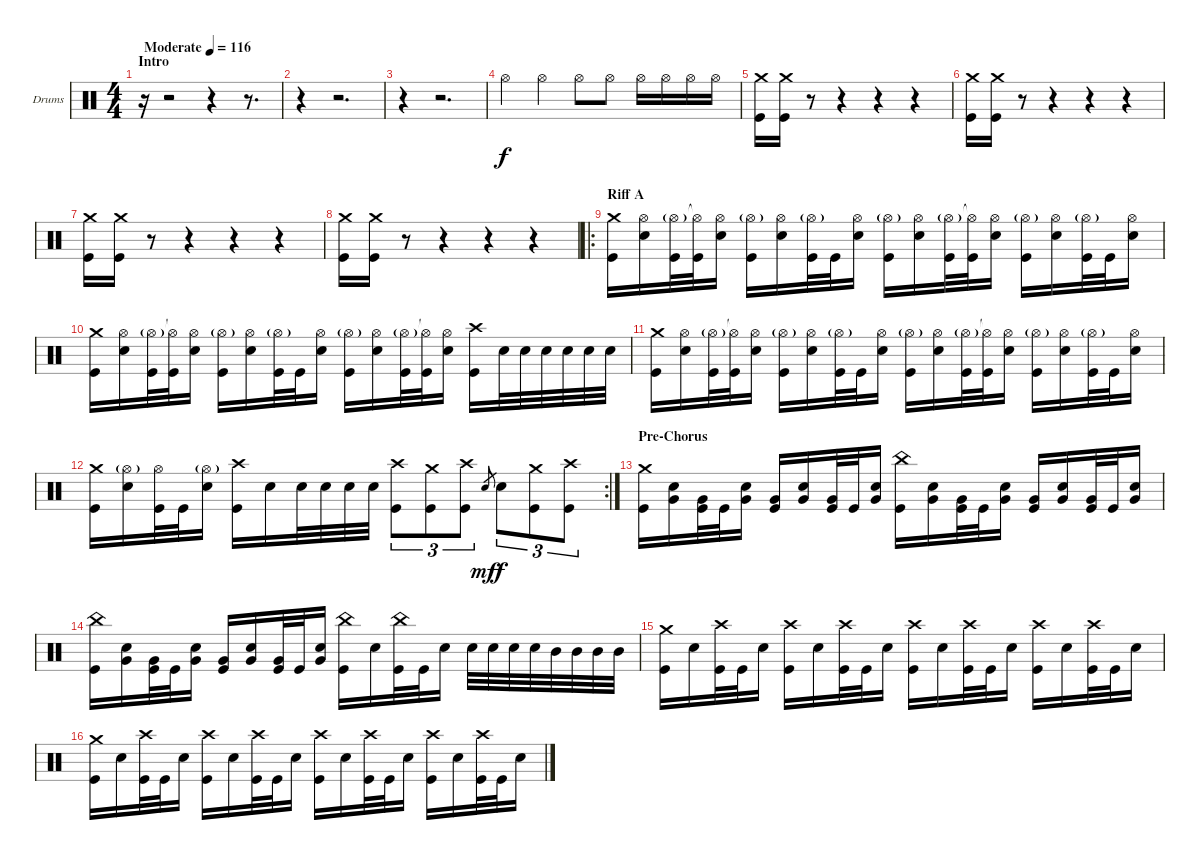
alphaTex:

\bracketExtendMode groupsimilarinstruments
\firstSystemTrackNameOrientation horizontal
\otherSystemsTrackNameOrientation horizontal
\track ("Dave McClain" "Drums") {instrument percussion}
\staff {score}
\articulation defaults
\ts (4 4)
\beaming (8 2 2 2 2)
\section ("" "Intro")
\tempo (116 "Moderate")
\clef neutral
\ks c
r.16{dy f} r.2 r.4 r.8{d} |
r.4 r.2{d} |
r.4 r.2{d} |
"Hi-Hat (open)".4 "Hi-Hat (open)".4 "Hi-Hat (open)".8 "Hi-Hat (open)".8 "Hi-Hat (open)".16 "Hi-Hat (open)".16 "Hi-Hat (open)".16 "Hi-Hat (open)".16 |
("Crash medium (hit)" "Kick (hit)").16 ("Crash medium (hit)" "Kick (hit)").16 r.8 r.4 r.4 r.4 |
("Crash medium (hit)" "Kick (hit)").16 ("Crash medium (hit)" "Kick (hit)").16 r.8 r.4 r.4 r.4 |
("Crash medium (hit)" "Kick (hit)").16 ("Crash medium (hit)" "Kick (hit)").16 r.8 r.4 r.4 r.4 |
("Crash medium (hit)" "Kick (hit)").16 ("Crash medium (hit)" "Kick (hit)").16 r.8 r.4 r.4 r.4 |
\ro
\section ("" "Riff A")
("Crash medium (hit)" "Kick (hit)").16 ("Hi-Hat (open)" "Snare (hit) 2").16 ("Hi-Hat (open)"{g} "Kick (hit)").32 ("Hi-Hat (open)"{t} "Kick (hit)").32 ("Hi-Hat (open)" "Snare (hit) 2").16 ("Hi-Hat (open)"{g} "Kick (hit)").16 ("Hi-Hat (open)" "Snare (hit) 2").16 ("Hi-Hat (open)"{g} "Kick (hit)").32 "Kick (hit)".32 ("Hi-Hat (open)" "Snare (hit) 2").16 ("Hi-Hat (open)"{g} "Kick (hit)").16 ("Hi-Hat (open)" "Snare (hit) 2").16 ("Hi-Hat (open)"{g} "Kick (hit)").32 ("Hi-Hat (open)"{t} "Kick (hit)").32 ("Hi-Hat (open)" "Snare (hit) 2").16 ("Hi-Hat (open)"{g} "Kick (hit)").16 ("Hi-Hat (open)" "Snare (hit) 2").16 ("Hi-Hat (open)"{g} "Kick (hit)").32 "Kick (hit)".32 ("Hi-Hat (open)" "Snare (hit) 2").16 |
("Crash medium (hit)" "Kick (hit)").16 ("Hi-Hat (open)" "Snare (hit) 2").16 ("Hi-Hat (open)"{g} "Kick (hit)").32 ("Hi-Hat (open)"{t} "Kick (hit)").32 ("Hi-Hat (open)" "Snare (hit) 2").16 ("Hi-Hat (open)"{g} "Kick (hit)").16 ("Hi-Hat (open)" "Snare (hit) 2").16 ("Hi-Hat (open)"{g} "Kick (hit)").32 "Kick (hit)".32 ("Hi-Hat (open)" "Snare (hit) 2").16 ("Hi-Hat (open)"{g} "Kick (hit)").16 ("Hi-Hat (open)" "Snare (hit) 2").16 ("Hi-Hat (open)"{g} "Kick (hit)").32 ("Hi-Hat (open)"{t} "Kick (hit)").32 ("Hi-Hat (open)" "Snare (hit) 2").16 ("Crash high (hit)" "Kick (hit)").16 "Snare (hit) 2".32 "Snare (hit) 2".32 "Snare (hit) 2".32 "Snare (hit) 2".32 "Snare (hit) 2".32 "Snare (hit) 2".32 |
("Crash medium (hit)" "Kick (hit)").16 ("Hi-Hat (open)" "Snare (hit) 2").16 ("Hi-Hat (open)"{g} "Kick (hit)").32 ("Hi-Hat (open)"{t} "Kick (hit)").32 ("Hi-Hat (open)" "Snare (hit) 2").16 ("Hi-Hat (open)"{g} "Kick (hit)").16 ("Hi-Hat (open)" "Snare (hit) 2").16 ("Hi-Hat (open)"{g} "Kick (hit)").32 "Kick (hit)".32 ("Hi-Hat (open)" "Snare (hit) 2").16 ("Hi-Hat (open)"{g} "Kick (hit)").16 ("Hi-Hat (open)" "Snare (hit) 2").16 ("Hi-Hat (open)"{g} "Kick (hit)").32 ("Hi-Hat (open)"{t} "Kick (hit)").32 ("Hi-Hat (open)" "Snare (hit) 2").16 ("Hi-Hat (open)"{g} "Kick (hit)").16 ("Hi-Hat (open)" "Snare (hit) 2").16 ("Hi-Hat (open)"{g} "Kick (hit)").32 "Kick (hit)".32 ("Hi-Hat (open)" "Snare (hit) 2").16 |
\rc 2
("Crash medium (hit)" "Kick (hit)").16 ("Hi-Hat (open)"{g} "Snare (hit) 2").16 ("Hi-Hat (open)" "Kick (hit)").32 "Kick (hit)".32 ("Hi-Hat (open)"{g} "Snare (hit) 2").16 ("Crash high (hit)" "Kick (hit)").16 "Snare (hit) 2".16 "Snare (hit) 2".32 "Snare (hit) 2".32 "Snare (hit) 2".32 "Snare (hit) 2".32 ("Crash high (hit)" "Kick (hit)").8{tu (3 2)} ("Crash medium (hit)" "Kick (hit)").8{tu (3 2)} ("Crash high (hit)" "Kick (hit)").8{tu (3 2)} "Snare (hit) 2".8{gr dy mf} "Snare (hit) 2".8{tu (3 2) dy f} ("Crash medium (hit)" "Kick (hit)").8{tu (3 2)} ("Crash high (hit)" "Kick (hit)").8{tu (3 2)} |
\section ("" "Pre-Chorus")
("Crash medium (hit)" "Kick (hit)").16 ("Snare (hit) 2" "Very Low Tom (hit)").16 ("Very Low Tom (hit)" "Kick (hit)").32 "Kick (hit)".32 ("Snare (hit) 2" "Very Low Tom (hit)").16 ("Very Low Tom (hit)" "Kick (hit)").16 ("Snare (hit) 2" "Very Low Tom (hit)").16 ("Very Low Tom (hit)" "Kick (hit)").32 "Kick (hit)".32 ("Snare (hit) 2" "Very Low Tom (hit)").16 ("China (hit)" "Kick (hit)").16 ("Snare (hit) 2" "Very Low Tom (hit)").16 ("Very Low Tom (hit)" "Kick (hit)").32 "Kick (hit)".32 ("Snare (hit) 2" "Very Low Tom (hit)").16 ("Very Low Tom (hit)" "Kick (hit)").16 ("Snare (hit) 2" "Very Low Tom (hit)").16 ("Very Low Tom (hit)" "Kick (hit)").32 "Kick (hit)".32 ("Snare (hit) 2" "Very Low Tom (hit)").16 |
("China (hit)" "Kick (hit)").16 ("Snare (hit) 2" "Very Low Tom (hit)").16 ("Very Low Tom (hit)" "Kick (hit)").32 "Kick (hit)".32 ("Snare (hit) 2" "Very Low Tom (hit)").16 ("Very Low Tom (hit)" "Kick (hit)").16 ("Snare (hit) 2" "Very Low Tom (hit)").16 ("Very Low Tom (hit)" "Kick (hit)").32 "Kick (hit)".32 ("Snare (hit) 2" "Very Low Tom (hit)").16 ("China (hit)" "Kick (hit)").16 "Snare (hit) 2".16 ("China (hit)" "Kick (hit)").32 "Kick (hit)".32 "Snare (hit) 2".16 "Snare (hit) 2".32 "Snare (hit) 2".32 "Snare (hit) 2".32 "Snare (hit) 2".32 "Mid Tom (hit)".32 "Mid Tom (hit)".32 "Mid Tom (hit)".32 "Mid Tom (hit)".32 |
("Crash medium (hit)" "Kick (hit)").16 "Snare (hit) 2".16 ("Crash high (hit)" "Kick (hit)").32 "Kick (hit)".32 "Snare (hit) 2".16 ("Crash high (hit)" "Kick (hit)").16 "Snare (hit) 2".16 ("Crash high (hit)" "Kick (hit)").32 "Kick (hit)".32 "Snare (hit) 2".16 ("Crash high (hit)" "Kick (hit)").16 "Snare (hit) 2".16 ("Crash high (hit)" "Kick (hit)").32 "Kick (hit)".32 "Snare (hit) 2".16 ("Crash high (hit)" "Kick (hit)").16 "Snare (hit) 2".16 ("Crash high (hit)" "Kick (hit)").32 "Kick (hit)".32 "Snare (hit) 2".16 |
("Crash medium (hit)" "Kick (hit)").16 "Snare (hit) 2".16 ("Crash high (hit)" "Kick (hit)").32 "Kick (hit)".32 "Snare (hit) 2".16 ("Crash high (hit)" "Kick (hit)").16 "Snare (hit) 2".16 ("Crash high (hit)" "Kick (hit)").32 "Kick (hit)".32 "Snare (hit) 2".16 ("Crash high (hit)" "Kick (hit)").16 "Snare (hit) 2".16 ("Crash high (hit)" "Kick (hit)").32 "Kick (hit)".32 "Snare (hit) 2".16 ("Crash high (hit)" "Kick (hit)").16 "Snare (hit) 2".16 ("Crash high (hit)" "Kick (hit)").32 "Kick (hit)".32 "Snare (hit) 2".16
